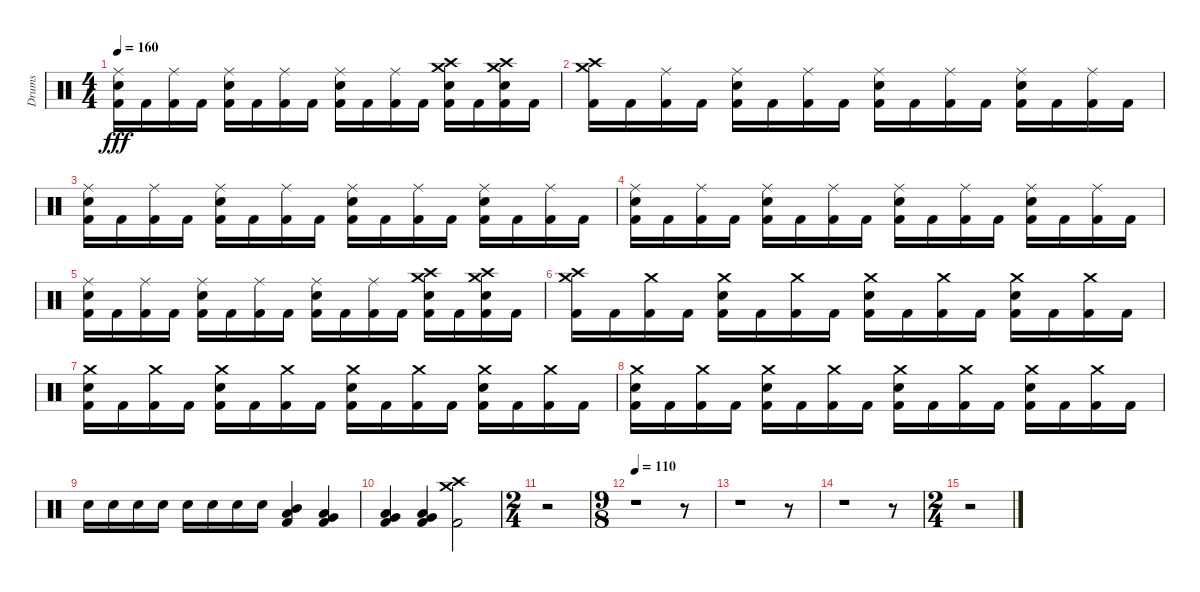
\track ("Drums" "Drums") {instrument percussion}
\staff {score}
\articulation defaults
\ts (4 4)
\tempo 160
\clef neutral
\ks c
("Kick (hit) 2" "Electric Snare (hit)" "Ride (middle)").16{dy fff} "Kick (hit) 2".16 ("Kick (hit) 2" "Ride (middle)").16 "Kick (hit) 2".16 ("Kick (hit) 2" "Electric Snare (hit)" "Ride (middle)").16 "Kick (hit) 2".16 ("Kick (hit) 2" "Ride (middle)").16 "Kick (hit) 2".16 ("Kick (hit) 2" "Electric Snare (hit)" "Ride (middle)").16 "Kick (hit) 2".16 ("Kick (hit) 2" "Ride (middle)").16 "Kick (hit) 2".16 ("Kick (hit) 2" "Electric Snare (hit)" "Crash medium (hit)" "Crash high (hit)").16 "Kick (hit) 2".16 ("Kick (hit) 2" "Electric Snare (hit)" "Crash medium (hit)" "Crash high (hit)").16 "Kick (hit) 2".16 |
("Kick (hit) 2" "Crash medium (hit)" "Crash high (hit)").16 "Kick (hit) 2".16 ("Kick (hit) 2" "Ride (middle)").16 "Kick (hit) 2".16 ("Kick (hit) 2" "Electric Snare (hit)" "Ride (middle)").16 "Kick (hit) 2".16 ("Kick (hit) 2" "Ride (middle)").16 "Kick (hit) 2".16 ("Kick (hit) 2" "Electric Snare (hit)" "Ride (middle)").16 "Kick (hit) 2".16 ("Kick (hit) 2" "Ride (middle)").16 "Kick (hit) 2".16 ("Kick (hit) 2" "Electric Snare (hit)" "Ride (middle)").16 "Kick (hit) 2".16 ("Kick (hit) 2" "Ride (middle)").16 "Kick (hit) 2".16 |
("Kick (hit) 2" "Electric Snare (hit)" "Ride (middle)").16 "Kick (hit) 2".16 ("Kick (hit) 2" "Ride (middle)").16 "Kick (hit) 2".16 ("Kick (hit) 2" "Electric Snare (hit)" "Ride (middle)").16 "Kick (hit) 2".16 ("Kick (hit) 2" "Ride (middle)").16 "Kick (hit) 2".16 ("Kick (hit) 2" "Electric Snare (hit)" "Ride (middle)").16 "Kick (hit) 2".16 ("Kick (hit) 2" "Ride (middle)").16 "Kick (hit) 2".16 ("Kick (hit) 2" "Electric Snare (hit)" "Ride (middle)").16 "Kick (hit) 2".16 ("Kick (hit) 2" "Ride (middle)").16 "Kick (hit) 2".16 |
("Kick (hit) 2" "Electric Snare (hit)" "Ride (middle)").16 "Kick (hit) 2".16 ("Kick (hit) 2" "Ride (middle)").16 "Kick (hit) 2".16 ("Kick (hit) 2" "Electric Snare (hit)" "Ride (middle)").16 "Kick (hit) 2".16 ("Kick (hit) 2" "Ride (middle)").16 "Kick (hit) 2".16 ("Kick (hit) 2" "Electric Snare (hit)" "Ride (middle)").16 "Kick (hit) 2".16 ("Kick (hit) 2" "Ride (middle)").16 "Kick (hit) 2".16 ("Kick (hit) 2" "Electric Snare (hit)" "Ride (middle)").16 "Kick (hit) 2".16 ("Kick (hit) 2" "Ride (middle)").16 "Kick (hit) 2".16 |
("Kick (hit) 2" "Electric Snare (hit)" "Ride (middle)").16 "Kick (hit) 2".16 ("Kick (hit) 2" "Ride (middle)").16 "Kick (hit) 2".16 ("Kick (hit) 2" "Electric Snare (hit)" "Ride (middle)").16 "Kick (hit) 2".16 ("Kick (hit) 2" "Ride (middle)").16 "Kick (hit) 2".16 ("Kick (hit) 2" "Electric Snare (hit)" "Ride (middle)").16 "Kick (hit) 2".16 ("Kick (hit) 2" "Ride (middle)").16 "Kick (hit) 2".16 ("Kick (hit) 2" "Electric Snare (hit)" "Crash medium (hit)" "Crash high (hit)").16 "Kick (hit) 2".16 ("Kick (hit) 2" "Electric Snare (hit)" "Crash medium (hit)" "Crash high (hit)").16 "Kick (hit) 2".16 |
("Kick (hit) 2" "Crash medium (hit)" "Crash high (hit)").16 "Kick (hit) 2".16 ("Kick (hit) 2" "Crash medium (hit)").16 "Kick (hit) 2".16 ("Kick (hit) 2" "Electric Snare (hit)" "Crash medium (hit)").16 "Kick (hit) 2".16 ("Kick (hit) 2" "Crash medium (hit)").16 "Kick (hit) 2".16 ("Kick (hit) 2" "Electric Snare (hit)" "Crash medium (hit)").16 "Kick (hit) 2".16 ("Kick (hit) 2" "Crash medium (hit)").16 "Kick (hit) 2".16 ("Kick (hit) 2" "Electric Snare (hit)" "Crash medium (hit)").16 "Kick (hit) 2".16 ("Kick (hit) 2" "Crash medium (hit)").16 "Kick (hit) 2".16 |
("Kick (hit) 2" "Electric Snare (hit)" "Crash medium (hit)").16 "Kick (hit) 2".16 ("Kick (hit) 2" "Crash medium (hit)").16 "Kick (hit) 2".16 ("Kick (hit) 2" "Electric Snare (hit)" "Crash medium (hit)").16 "Kick (hit) 2".16 ("Kick (hit) 2" "Crash medium (hit)").16 "Kick (hit) 2".16 ("Kick (hit) 2" "Electric Snare (hit)" "Crash medium (hit)").16 "Kick (hit) 2".16 ("Kick (hit) 2" "Crash medium (hit)").16 "Kick (hit) 2".16 ("Kick (hit) 2" "Electric Snare (hit)" "Crash medium (hit)").16 "Kick (hit) 2".16 ("Kick (hit) 2" "Crash medium (hit)").16 "Kick (hit) 2".16 |
("Kick (hit) 2" "Electric Snare (hit)" "Crash medium (hit)").16 "Kick (hit) 2".16 ("Kick (hit) 2" "Crash medium (hit)").16 "Kick (hit) 2".16 ("Kick (hit) 2" "Electric Snare (hit)" "Crash medium (hit)").16 "Kick (hit) 2".16 ("Kick (hit) 2" "Crash medium (hit)").16 "Kick (hit) 2".16 ("Kick (hit) 2" "Electric Snare (hit)" "Crash medium (hit)").16 "Kick (hit) 2".16 ("Kick (hit) 2" "Crash medium (hit)").16 "Kick (hit) 2".16 ("Kick (hit) 2" "Electric Snare (hit)" "Crash medium (hit)").16 "Kick (hit) 2".16 ("Kick (hit) 2" "Crash medium (hit)").16 "Kick (hit) 2".16 |
"Electric Snare (hit)".16 "Electric Snare (hit)".16 "Electric Snare (hit)".16 "Electric Snare (hit)".16 "Electric Snare (hit)".16 "Electric Snare (hit)".16 "Electric Snare (hit)".16 "Electric Snare (hit)".16 ("Kick (hit) 2" "Low Tom (hit)" "Mid Tom (hit)").4 ("Kick (hit) 2" "Low Tom (hit)" "Very Low Tom (hit)").4 |
("Kick (hit) 2" "Low Tom (hit)" "Very Low Tom (hit)").4 ("Kick (hit) 2" "Very Low Tom (hit)" "Low Floor Tom (hit)").4 ("Kick (hit) 2" "Crash medium (hit)" "Crash high (hit)").2 |
\ts (2 4)
r.2 |
\ts (9 8)
\tempo 110
r.1 r.8 |
r.1 r.8 |
r.1 r.8 |
\ts (2 4)
r.2
